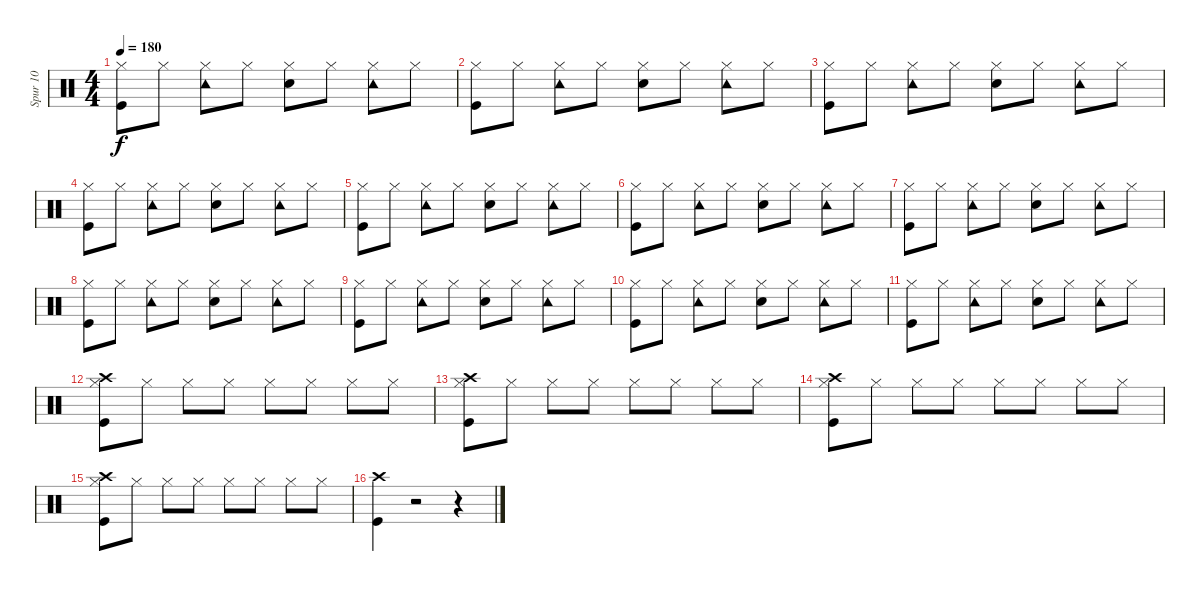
\track ("Spur 10" "Spur 10") {instrument percussion}
\staff {score}
\articulation defaults
\ts (4 4)
\tempo 180
\clef neutral
\ks c
("Hi-Hat (closed)" "Kick (hit)").8{dy f} "Hi-Hat (closed)".8 ("Tambourine (hit)" "Hi-Hat (closed)").8 "Hi-Hat (closed)".8 ("Electric Snare (hit)" "Hi-Hat (closed)").8 "Hi-Hat (closed)".8 ("Tambourine (hit)" "Hi-Hat (closed)").8 "Hi-Hat (closed)".8 |
("Hi-Hat (closed)" "Kick (hit)").8 "Hi-Hat (closed)".8 ("Tambourine (hit)" "Hi-Hat (closed)").8 "Hi-Hat (closed)".8 ("Electric Snare (hit)" "Hi-Hat (closed)").8 "Hi-Hat (closed)".8 ("Tambourine (hit)" "Hi-Hat (closed)").8 "Hi-Hat (closed)".8 |
("Hi-Hat (closed)" "Kick (hit)").8 "Hi-Hat (closed)".8 ("Tambourine (hit)" "Hi-Hat (closed)").8 "Hi-Hat (closed)".8 ("Electric Snare (hit)" "Hi-Hat (closed)").8 "Hi-Hat (closed)".8 ("Tambourine (hit)" "Hi-Hat (closed)").8 "Hi-Hat (closed)".8 |
("Hi-Hat (closed)" "Kick (hit)").8 "Hi-Hat (closed)".8 ("Tambourine (hit)" "Hi-Hat (closed)").8 "Hi-Hat (closed)".8 ("Electric Snare (hit)" "Hi-Hat (closed)").8 "Hi-Hat (closed)".8 ("Tambourine (hit)" "Hi-Hat (closed)").8 "Hi-Hat (closed)".8 |
("Hi-Hat (closed)" "Kick (hit)").8 "Hi-Hat (closed)".8 ("Tambourine (hit)" "Hi-Hat (closed)").8 "Hi-Hat (closed)".8 ("Electric Snare (hit)" "Hi-Hat (closed)").8 "Hi-Hat (closed)".8 ("Tambourine (hit)" "Hi-Hat (closed)").8 "Hi-Hat (closed)".8 |
("Hi-Hat (closed)" "Kick (hit)").8 "Hi-Hat (closed)".8 ("Tambourine (hit)" "Hi-Hat (closed)").8 "Hi-Hat (closed)".8 ("Electric Snare (hit)" "Hi-Hat (closed)").8 "Hi-Hat (closed)".8 ("Tambourine (hit)" "Hi-Hat (closed)").8 "Hi-Hat (closed)".8 |
("Hi-Hat (closed)" "Kick (hit)").8 "Hi-Hat (closed)".8 ("Tambourine (hit)" "Hi-Hat (closed)").8 "Hi-Hat (closed)".8 ("Electric Snare (hit)" "Hi-Hat (closed)").8 "Hi-Hat (closed)".8 ("Tambourine (hit)" "Hi-Hat (closed)").8 "Hi-Hat (closed)".8 |
("Hi-Hat (closed)" "Kick (hit)").8 "Hi-Hat (closed)".8 ("Tambourine (hit)" "Hi-Hat (closed)").8 "Hi-Hat (closed)".8 ("Electric Snare (hit)" "Hi-Hat (closed)").8 "Hi-Hat (closed)".8 ("Tambourine (hit)" "Hi-Hat (closed)").8 "Hi-Hat (closed)".8 |
("Hi-Hat (closed)" "Kick (hit)").8 "Hi-Hat (closed)".8 ("Tambourine (hit)" "Hi-Hat (closed)").8 "Hi-Hat (closed)".8 ("Electric Snare (hit)" "Hi-Hat (closed)").8 "Hi-Hat (closed)".8 ("Tambourine (hit)" "Hi-Hat (closed)").8 "Hi-Hat (closed)".8 |
("Hi-Hat (closed)" "Kick (hit)").8 "Hi-Hat (closed)".8 ("Tambourine (hit)" "Hi-Hat (closed)").8 "Hi-Hat (closed)".8 ("Electric Snare (hit)" "Hi-Hat (closed)").8 "Hi-Hat (closed)".8 ("Tambourine (hit)" "Hi-Hat (closed)").8 "Hi-Hat (closed)".8 |
("Hi-Hat (closed)" "Kick (hit)").8 "Hi-Hat (closed)".8 ("Tambourine (hit)" "Hi-Hat (closed)").8 "Hi-Hat (closed)".8 ("Electric Snare (hit)" "Hi-Hat (closed)").8 "Hi-Hat (closed)".8 ("Tambourine (hit)" "Hi-Hat (closed)").8 "Hi-Hat (closed)".8 |
("Crash high (hit)" "Hi-Hat (closed)" "Kick (hit)").8 "Hi-Hat (closed)".8 "Hi-Hat (closed)".8 "Hi-Hat (closed)".8 "Hi-Hat (closed)".8 "Hi-Hat (closed)".8 "Hi-Hat (closed)".8 "Hi-Hat (closed)".8 |
("Crash high (hit)" "Hi-Hat (closed)" "Kick (hit)").8 "Hi-Hat (closed)".8 "Hi-Hat (closed)".8 "Hi-Hat (closed)".8 "Hi-Hat (closed)".8 "Hi-Hat (closed)".8 "Hi-Hat (closed)".8 "Hi-Hat (closed)".8 |
("Crash high (hit)" "Hi-Hat (closed)" "Kick (hit)").8 "Hi-Hat (closed)".8 "Hi-Hat (closed)".8 "Hi-Hat (closed)".8 "Hi-Hat (closed)".8 "Hi-Hat (closed)".8 "Hi-Hat (closed)".8 "Hi-Hat (closed)".8 |
("Crash high (hit)" "Hi-Hat (closed)" "Kick (hit)").8 "Hi-Hat (closed)".8 "Hi-Hat (closed)".8 "Hi-Hat (closed)".8 "Hi-Hat (closed)".8 "Hi-Hat (closed)".8 "Hi-Hat (closed)".8 "Hi-Hat (closed)".8 |
("Crash high (hit)" "Kick (hit)").4 r.2 r.4
